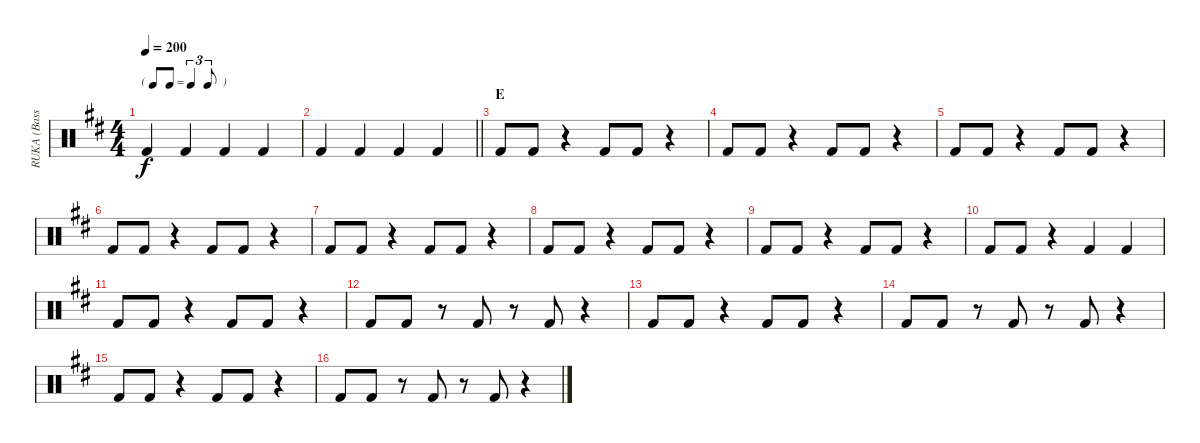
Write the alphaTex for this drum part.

\track ("RUKA (Bass)" "RUKA (Bass") {instrument percussion}
\staff {score}
\articulation defaults
\ts (4 4)
\tf triplet8th
\tempo 200
\clef neutral
\ks d "Kick (hit) 2".4{dy f} "Kick (hit) 2".4 "Kick (hit) 2".4 "Kick (hit) 2".4
|
\barLineRight lightlight "Kick (hit) 2".4 "Kick (hit) 2".4 "Kick (hit) 2".4 "Kick (hit) 2".4
|
\section ("" "E")
"Kick (hit) 2".8 "Kick (hit) 2".8 r.4 "Kick (hit) 2".8 "Kick (hit) 2".8 r.4 |
"Kick (hit) 2".8 "Kick (hit) 2".8 r.4 "Kick (hit) 2".8 "Kick (hit) 2".8 r.4 |
"Kick (hit) 2".8 "Kick (hit) 2".8 r.4 "Kick (hit) 2".8 "Kick (hit) 2".8 r.4 |
"Kick (hit) 2".8 "Kick (hit) 2".8 r.4 "Kick (hit) 2".8 "Kick (hit) 2".8 r.4 |
"Kick (hit) 2".8 "Kick (hit) 2".8 r.4 "Kick (hit) 2".8 "Kick (hit) 2".8 r.4 |
"Kick (hit) 2".8 "Kick (hit) 2".8 r.4 "Kick (hit) 2".8 "Kick (hit) 2".8 r.4 |
"Kick (hit) 2".8 "Kick (hit) 2".8 r.4 "Kick (hit) 2".8 "Kick (hit) 2".8 r.4 |
"Kick (hit) 2".8 "Kick (hit) 2".8 r.4 "Kick (hit) 2".4 "Kick (hit) 2".4 |
"Kick (hit) 2".8 "Kick (hit) 2".8 r.4 "Kick (hit) 2".8 "Kick (hit) 2".8 r.4 |
"Kick (hit) 2".8 "Kick (hit) 2".8 r.8 "Kick (hit) 2".8 r.8 "Kick (hit) 2".8 r.4 |
"Kick (hit) 2".8 "Kick (hit) 2".8 r.4 "Kick (hit) 2".8 "Kick (hit) 2".8 r.4 |
"Kick (hit) 2".8 "Kick (hit) 2".8 r.8 "Kick (hit) 2".8 r.8 "Kick (hit) 2".8 r.4 |
"Kick (hit) 2".8 "Kick (hit) 2".8 r.4 "Kick (hit) 2".8 "Kick (hit) 2".8 r.4 |
"Kick (hit) 2".8 "Kick (hit) 2".8 r.8 "Kick (hit) 2".8 r.8 "Kick (hit) 2".8 r.4
